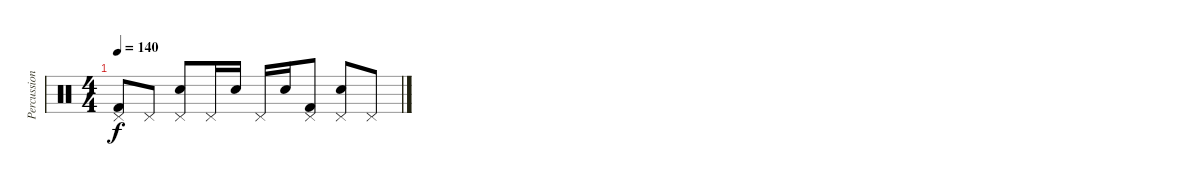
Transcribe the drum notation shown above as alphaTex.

\track ("Percussion" "Percussion") {instrument percussion}
\staff {score}
\articulation defaults
\ts (4 4)
\tempo 140
\clef neutral
\ks c
("Pedal Hi-Hat (hit)" "Kick (hit) 2").8{dy f} "Pedal Hi-Hat (hit)".8 ("Pedal Hi-Hat (hit)" "Electric Snare (hit)").8 "Pedal Hi-Hat (hit)".16 "Electric Snare (hit)".16 "Pedal Hi-Hat (hit)".16 "Electric Snare (hit)".16 ("Pedal Hi-Hat (hit)" "Kick (hit) 2").8 ("Pedal Hi-Hat (hit)" "Electric Snare (hit)").8 "Pedal Hi-Hat (hit)".8
